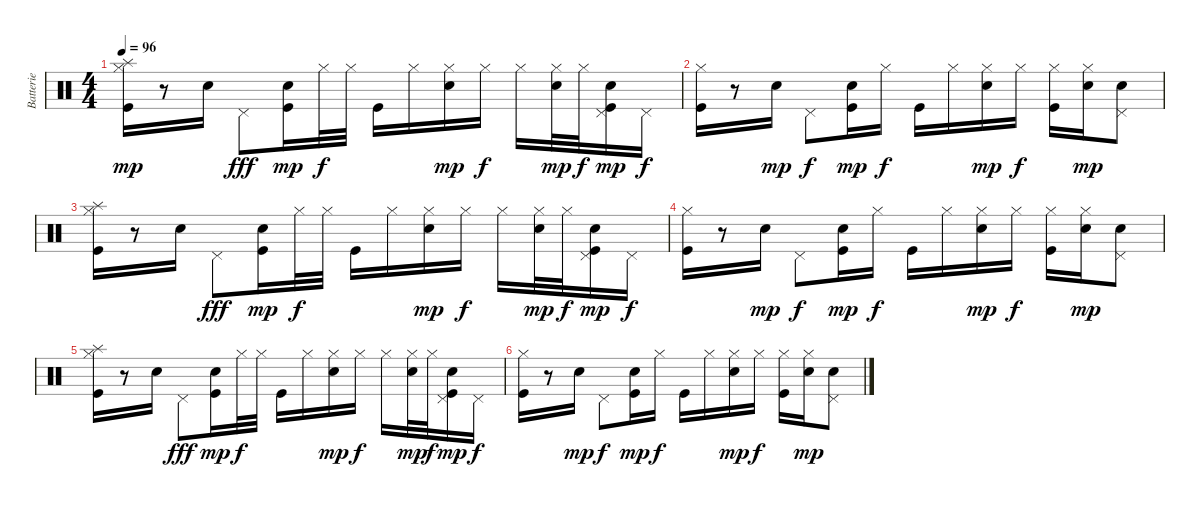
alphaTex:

\track ("Batterie" "Batterie") {instrument percussion}
\staff {score}
\articulation defaults
\ts (4 4)
\tempo 96
\clef neutral
\ks c
("Splash (hit)" "Hi-Hat (closed)" "Kick (hit)").16{dy mp volume 7} r.8 "Electric Snare (hit)".16 "Pedal Hi-Hat (hit)".8{dy fff} ("Electric Snare (hit)" "Kick (hit)").16{dy mp} "Hi-Hat (closed)".32{dy f} "Hi-Hat (closed)".32 "Kick (hit)".16 "Hi-Hat (closed)".16 ("Hi-Hat (closed)" "Electric Snare (hit)").16{dy mp} "Hi-Hat (closed)".16{dy f} "Hi-Hat (closed)".16 ("Hi-Hat (closed)" "Electric Snare (hit)").32{dy mp} "Hi-Hat (closed)".32{dy f} ("Pedal Hi-Hat (hit)" "Electric Snare (hit)" "Kick (hit)").16{dy mp} "Pedal Hi-Hat (hit)".16{dy f} |
("Hi-Hat (closed)" "Kick (hit)").16 r.8 "Electric Snare (hit)".16{dy mp} "Pedal Hi-Hat (hit)".8{dy f} ("Electric Snare (hit)" "Kick (hit)").16{dy mp} "Hi-Hat (closed)".16{dy f} "Kick (hit)".16 "Hi-Hat (closed)".16 ("Hi-Hat (closed)" "Electric Snare (hit)").16{dy mp} "Hi-Hat (closed)".16{dy f} ("Hi-Hat (closed)" "Kick (hit)").16 ("Hi-Hat (closed)" "Electric Snare (hit)").16{dy mp} ("Pedal Hi-Hat (hit)" "Electric Snare (hit)").8 |
("Splash (hit)" "Hi-Hat (closed)" "Kick (hit)").16 r.8 "Electric Snare (hit)".16 "Pedal Hi-Hat (hit)".8{dy fff} ("Electric Snare (hit)" "Kick (hit)").16{dy mp} "Hi-Hat (closed)".32{dy f} "Hi-Hat (closed)".32 "Kick (hit)".16 "Hi-Hat (closed)".16 ("Hi-Hat (closed)" "Electric Snare (hit)").16{dy mp} "Hi-Hat (closed)".16{dy f} "Hi-Hat (closed)".16 ("Hi-Hat (closed)" "Electric Snare (hit)").32{dy mp} "Hi-Hat (closed)".32{dy f} ("Pedal Hi-Hat (hit)" "Electric Snare (hit)" "Kick (hit)").16{dy mp} "Pedal Hi-Hat (hit)".16{dy f} |
("Hi-Hat (closed)" "Kick (hit)").16{volume 5} r.8 "Electric Snare (hit)".16{dy mp} "Pedal Hi-Hat (hit)".8{dy f} ("Electric Snare (hit)" "Kick (hit)").16{dy mp} "Hi-Hat (closed)".16{dy f} "Kick (hit)".16 "Hi-Hat (closed)".16 ("Hi-Hat (closed)" "Electric Snare (hit)").16{dy mp} "Hi-Hat (closed)".16{dy f} ("Hi-Hat (closed)" "Kick (hit)").16 ("Hi-Hat (closed)" "Electric Snare (hit)").16{dy mp} ("Pedal Hi-Hat (hit)" "Electric Snare (hit)").8 |
("Splash (hit)" "Hi-Hat (closed)" "Kick (hit)").16 r.8 "Electric Snare (hit)".16 "Pedal Hi-Hat (hit)".8{dy fff} ("Electric Snare (hit)" "Kick (hit)").16{dy mp} "Hi-Hat (closed)".32{dy f} "Hi-Hat (closed)".32 "Kick (hit)".16 "Hi-Hat (closed)".16 ("Hi-Hat (closed)" "Electric Snare (hit)").16{dy mp} "Hi-Hat (closed)".16{dy f} "Hi-Hat (closed)".16 ("Hi-Hat (closed)" "Electric Snare (hit)").32{dy mp} "Hi-Hat (closed)".32{dy f} ("Pedal Hi-Hat (hit)" "Electric Snare (hit)" "Kick (hit)").16{dy mp} "Pedal Hi-Hat (hit)".16{dy f} |
("Hi-Hat (closed)" "Kick (hit)").16 r.8 "Electric Snare (hit)".16{dy mp} "Pedal Hi-Hat (hit)".8{dy f} ("Electric Snare (hit)" "Kick (hit)").16{dy mp} "Hi-Hat (closed)".16{dy f} "Kick (hit)".16 "Hi-Hat (closed)".16 ("Hi-Hat (closed)" "Electric Snare (hit)").16{dy mp} "Hi-Hat (closed)".16{dy f} ("Hi-Hat (closed)" "Kick (hit)").16 ("Hi-Hat (closed)" "Electric Snare (hit)").16{dy mp} ("Pedal Hi-Hat (hit)" "Electric Snare (hit)").8
